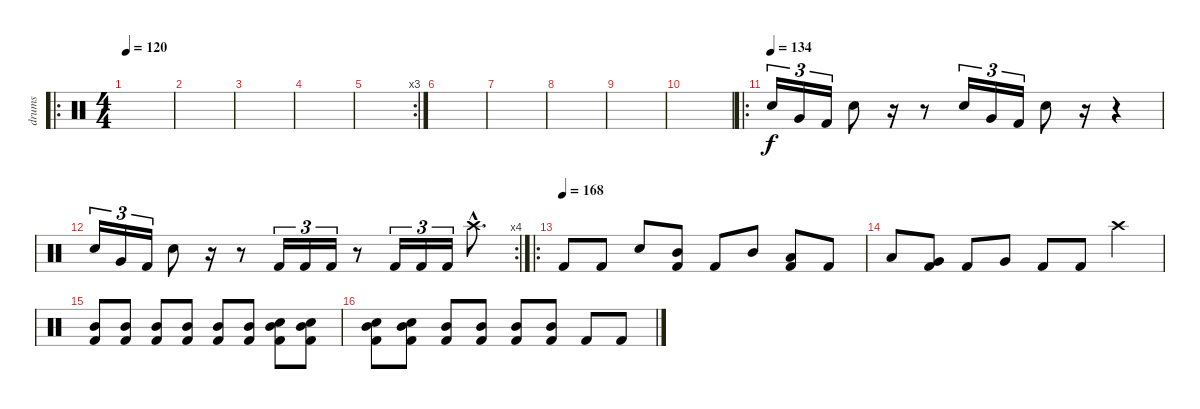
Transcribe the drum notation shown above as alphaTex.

\track ("drums" "drums") {instrument percussion}
\staff {score}
\articulation defaults
\ro
\ts (4 4)
\tempo 120
\tempo 100
\tempo 120
\clef neutral
\ks c
|
|
|
|
\rc 3
|
|
|
|
|
|
\ro
\tempo (134)
"Snare (hit) 2".16{tu (3 2)} "Very Low Tom (hit)".16{tu (3 2)} "Kick (hit) 2".16{tu (3 2)} "Snare (hit) 2".8 r.16 r.8 "Snare (hit) 2".16{tu (3 2)} "Very Low Tom (hit)".16{tu (3 2)} "Kick (hit) 2".16{tu (3 2)} "Snare (hit) 2".8 r.16 r.4 |
\rc 4 "Snare (hit) 2".16{tu (3 2)} "Very Low Tom (hit)".16{tu (3 2)} "Kick (hit) 2".16{tu (3 2)} "Snare (hit) 2".8
r.16 r.8 "Kick (hit) 2".16{tu (3 2)} "Kick (hit) 2".16{tu (3 2)} "Kick (hit) 2".16{tu (3 2)} r.8 "Kick (hit) 2".16{tu (3 2)} "Kick (hit) 2".16{tu (3 2)} "Kick (hit) 2".16{tu (3 2)} "Crash high (hit)"{hac}.8{d} |
\ro
\tempo (168)
"Kick (hit) 2".8 "Kick (hit) 2".8 "Snare (hit) 2".8 ("Mid Tom (hit)" "Kick (hit) 2").8 "Kick (hit) 2".8 "Mid Tom (hit)".8 ("Low Tom (hit)" "Kick (hit) 2").8 "Kick (hit) 2".8 |
"Low Tom (hit)".8 ("Very Low Tom (hit)" "Kick (hit) 2").8 "Kick (hit) 2".8 "Very Low Tom (hit)".8 "Kick (hit) 2".8 "Kick (hit) 2".8 "Crash high (hit)".4 |
("Mid Tom (hit)" "Kick (hit) 2").8 ("Mid Tom (hit)" "Kick (hit) 2").8 ("Mid Tom (hit)" "Kick (hit) 2").8 ("Mid Tom (hit)" "Kick (hit) 2").8 ("Mid Tom (hit)" "Kick (hit) 2").8 ("Mid Tom (hit)" "Kick (hit) 2").8 ("Snare (hit) 2" "Mid Tom (hit)" "Kick (hit) 2").8 ("Snare (hit) 2" "Mid Tom (hit)" "Kick (hit) 2").8 |
("Snare (hit) 2" "Mid Tom (hit)" "Kick (hit) 2").8 ("Snare (hit) 2" "Mid Tom (hit)" "Kick (hit) 2").8 ("Mid Tom (hit)" "Kick (hit) 2").8 ("Mid Tom (hit)" "Kick (hit) 2").8 ("Mid Tom (hit)" "Kick (hit) 2").8 ("Mid Tom (hit)" "Kick (hit) 2").8 "Kick (hit) 2".8 "Kick (hit) 2".8
